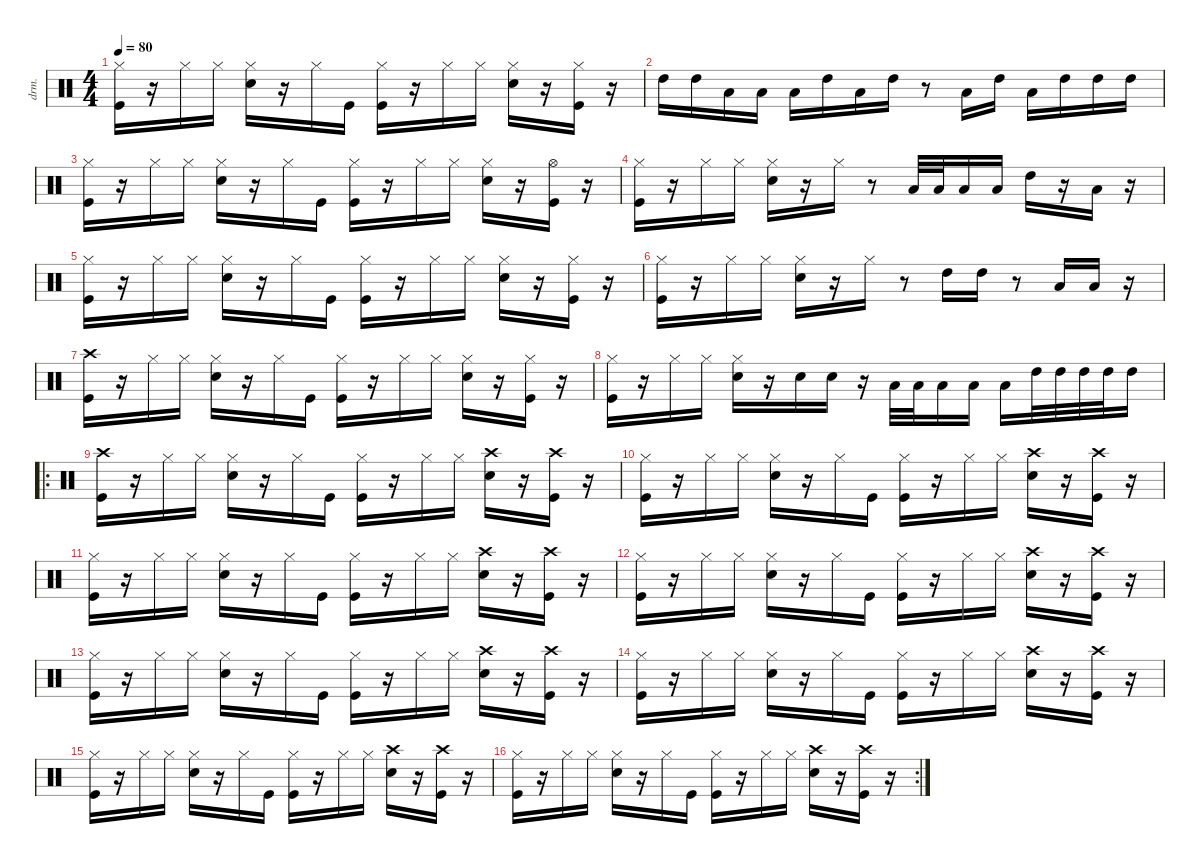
\defaultSystemsLayout 4
\hideDynamics
\bracketExtendMode nobrackets
\track ("Percussions" "drm.") {instrument percussion}
\staff {score}
\articulation defaults
\ts (4 4)
\tempo 80
\clef neutral
\ks c
("Kick (hit)" "Hi-Hat (closed)").16{dy f beam Down} r.16{beam Down} "Hi-Hat (closed)".16{beam Down} "Hi-Hat (closed)".16{beam Down} ("Snare (hit) 2" "Hi-Hat (closed)").16{beam Down} r.16{beam Down} "Hi-Hat (closed)".16{beam Down} "Kick (hit)".16{beam Down} ("Kick (hit)" "Hi-Hat (closed)").16{beam Down} r.16{beam Down} "Hi-Hat (closed)".16{beam Down} "Hi-Hat (closed)".16{beam Down} ("Snare (hit) 2" "Hi-Hat (closed)").16{beam Down} r.16{beam Down} ("Kick (hit)" "Hi-Hat (closed)").16{beam Down} r.16{beam Down} |
"High Tom (hit)".16{beam Down} "High Tom (hit)".16{beam Down} "Low Tom (hit)".16{beam Down} "Low Floor Tom (hit)".16{beam Down} "Low Floor Tom (hit)".16{beam Down} "High Tom (hit)".16{beam Down} "Low Floor Tom (hit)".16{beam Down} "High Tom (hit)".16{beam Down} r.8{beam Down} "Low Floor Tom (hit)".16{beam Down} "High Tom (hit)".16{beam Down} "Low Floor Tom (hit)".16{beam Down} "High Tom (hit)".16{beam Down} "High Tom (hit)".16{beam Down} "High Tom (hit)".16{beam Down} |
("Kick (hit)" "Hi-Hat (closed)").16{beam Down} r.16{beam Down} "Hi-Hat (closed)".16{beam Down} "Hi-Hat (closed)".16{beam Down} ("Snare (hit) 2" "Hi-Hat (closed)").16{beam Down} r.16{beam Down} "Hi-Hat (closed)".16{beam Down} "Kick (hit)".16{beam Down} ("Kick (hit)" "Hi-Hat (closed)").16{beam Down} r.16{beam Down} "Hi-Hat (closed)".16{beam Down} "Hi-Hat (closed)".16{beam Down} ("Snare (hit) 2" "Hi-Hat (closed)").16{beam Down} r.16{beam Down} ("Kick (hit)" "Hi-Hat (open)").16{beam Down} r.16{beam Down} |
("Kick (hit)" "Hi-Hat (closed)").16{beam Down} r.16{beam Down} "Hi-Hat (closed)".16{beam Down} "Hi-Hat (closed)".16{beam Down} ("Snare (hit) 2" "Hi-Hat (closed)").16{beam Down} r.16{beam Down} "Hi-Hat (closed)".16{beam Down} r.8{beam Down} "Low Floor Tom (hit)".32{beam Up} "Low Floor Tom (hit)".32{beam Up} "Low Floor Tom (hit)".16{beam Up} "Low Floor Tom (hit)".16{beam Up} "High Tom (hit)".16{beam Down} r.16{beam Down} "Low Floor Tom (hit)".16{beam Down} r.16{beam Down} |
("Kick (hit)" "Hi-Hat (closed)").16{beam Down} r.16{beam Down} "Hi-Hat (closed)".16{beam Down} "Hi-Hat (closed)".16{beam Down} ("Snare (hit) 2" "Hi-Hat (closed)").16{beam Down} r.16{beam Down} "Hi-Hat (closed)".16{beam Down} "Kick (hit)".16{beam Down} ("Kick (hit)" "Hi-Hat (closed)").16{beam Down} r.16{beam Down} "Hi-Hat (closed)".16{beam Down} "Hi-Hat (closed)".16{beam Down} ("Snare (hit) 2" "Hi-Hat (closed)").16{beam Down} r.16{beam Down} ("Kick (hit)" "Hi-Hat (closed)").16{beam Down} r.16{beam Down} |
("Kick (hit)" "Hi-Hat (closed)").16{beam Down} r.16{beam Down} "Hi-Hat (closed)".16{beam Down} "Hi-Hat (closed)".16{beam Down} ("Snare (hit) 2" "Hi-Hat (closed)").16{beam Down} r.16{beam Down} "Hi-Hat (closed)".16{beam Down} r.8{beam Down} "High Tom (hit)".16{beam Down} "High Tom (hit)".16{beam Down} r.8{beam Down} "Low Floor Tom (hit)".16{beam Up} "Low Floor Tom (hit)".16{beam Up} r.16{beam Down} |
("Kick (hit)" "Crash high (hit)").16{beam Down} r.16{beam Down} "Hi-Hat (closed)".16{beam Down} "Hi-Hat (closed)".16{beam Down} ("Snare (hit) 2" "Hi-Hat (closed)").16{beam Down} r.16{beam Down} "Hi-Hat (closed)".16{beam Down} "Kick (hit)".16{beam Down} ("Kick (hit)" "Hi-Hat (closed)").16{beam Down} r.16{beam Down} "Hi-Hat (closed)".16{beam Down} "Hi-Hat (closed)".16{beam Down} ("Snare (hit) 2" "Hi-Hat (closed)").16{beam Down} r.16{beam Down} ("Kick (hit)" "Hi-Hat (closed)").16{beam Down} r.16{beam Down} |
("Kick (hit)" "Hi-Hat (closed)").16{beam Down} r.16{beam Down} "Hi-Hat (closed)".16{beam Down} "Hi-Hat (closed)".16{beam Down} ("Snare (hit) 2" "Hi-Hat (closed)").16{beam Down} r.16{beam Down} "Snare (hit) 2".16{beam Down} "Snare (hit) 2".16{beam Down} r.16{beam Down} "Low Floor Tom (hit)".32{beam Up} "Low Floor Tom (hit)".32{beam Up} "Low Floor Tom (hit)".16{beam Up} "Low Floor Tom (hit)".16{beam Up} "Low Floor Tom (hit)".16{beam Down} "High Tom (hit)".32{beam Down} "High Tom (hit)".32{beam Down} "High Tom (hit)".32{beam Down} "High Tom (hit)".32{beam Down} "High Tom (hit)".16{beam Down} |
\ro
("Kick (hit)" "Crash high (hit)").16{beam Down} r.16{beam Down} "Hi-Hat (closed)".16{beam Down} "Hi-Hat (closed)".16{beam Down} ("Snare (hit) 2" "Hi-Hat (closed)").16{beam Down} r.16{beam Down} "Hi-Hat (closed)".16{beam Down} "Kick (hit)".16{beam Down} ("Kick (hit)" "Hi-Hat (closed)").16{beam Down} r.16{beam Down} "Hi-Hat (closed)".16{beam Down} "Hi-Hat (closed)".16{beam Down} ("Crash high (hit)" "Snare (hit) 2").16{beam Down} r.16{beam Down} ("Kick (hit)" "Crash high (hit)").16{beam Down} r.16{beam Down} |
("Kick (hit)" "Hi-Hat (closed)").16{beam Down} r.16{beam Down} "Hi-Hat (closed)".16{beam Down} "Hi-Hat (closed)".16{beam Down} ("Snare (hit) 2" "Hi-Hat (closed)").16{beam Down} r.16{beam Down} "Hi-Hat (closed)".16{beam Down} "Kick (hit)".16{beam Down} ("Kick (hit)" "Hi-Hat (closed)").16{beam Down} r.16{beam Down} "Hi-Hat (closed)".16{beam Down} "Hi-Hat (closed)".16{beam Down} ("Crash high (hit)" "Snare (hit) 2").16{beam Down} r.16{beam Down} ("Kick (hit)" "Crash high (hit)").16{beam Down} r.16{beam Down} |
("Kick (hit)" "Hi-Hat (closed)").16{beam Down} r.16{beam Down} "Hi-Hat (closed)".16{beam Down} "Hi-Hat (closed)".16{beam Down} ("Snare (hit) 2" "Hi-Hat (closed)").16{beam Down} r.16{beam Down} "Hi-Hat (closed)".16{beam Down} "Kick (hit)".16{beam Down} ("Kick (hit)" "Hi-Hat (closed)").16{beam Down} r.16{beam Down} "Hi-Hat (closed)".16{beam Down} "Hi-Hat (closed)".16{beam Down} ("Crash high (hit)" "Snare (hit) 2").16{beam Down} r.16{beam Down} ("Kick (hit)" "Crash high (hit)").16{beam Down} r.16{beam Down} |
("Kick (hit)" "Hi-Hat (closed)").16{beam Down} r.16{beam Down} "Hi-Hat (closed)".16{beam Down} "Hi-Hat (closed)".16{beam Down} ("Snare (hit) 2" "Hi-Hat (closed)").16{beam Down} r.16{beam Down} "Hi-Hat (closed)".16{beam Down} "Kick (hit)".16{beam Down} ("Kick (hit)" "Hi-Hat (closed)").16{beam Down} r.16{beam Down} "Hi-Hat (closed)".16{beam Down} "Hi-Hat (closed)".16{beam Down} ("Crash high (hit)" "Snare (hit) 2").16{beam Down} r.16{beam Down} ("Kick (hit)" "Crash high (hit)").16{beam Down} r.16{beam Down} |
("Kick (hit)" "Hi-Hat (closed)").16{beam Down} r.16{beam Down} "Hi-Hat (closed)".16{beam Down} "Hi-Hat (closed)".16{beam Down} ("Snare (hit) 2" "Hi-Hat (closed)").16{beam Down} r.16{beam Down} "Hi-Hat (closed)".16{beam Down} "Kick (hit)".16{beam Down} ("Kick (hit)" "Hi-Hat (closed)").16{beam Down} r.16{beam Down} "Hi-Hat (closed)".16{beam Down} "Hi-Hat (closed)".16{beam Down} ("Crash high (hit)" "Snare (hit) 2").16{beam Down} r.16{beam Down} ("Kick (hit)" "Crash high (hit)").16{beam Down} r.16{beam Down} |
("Kick (hit)" "Hi-Hat (closed)").16{beam Down} r.16{beam Down} "Hi-Hat (closed)".16{beam Down} "Hi-Hat (closed)".16{beam Down} ("Snare (hit) 2" "Hi-Hat (closed)").16{beam Down} r.16{beam Down} "Hi-Hat (closed)".16{beam Down} "Kick (hit)".16{beam Down} ("Kick (hit)" "Hi-Hat (closed)").16{beam Down} r.16{beam Down} "Hi-Hat (closed)".16{beam Down} "Hi-Hat (closed)".16{beam Down} ("Crash high (hit)" "Snare (hit) 2").16{beam Down} r.16{beam Down} ("Kick (hit)" "Crash high (hit)").16{beam Down} r.16{beam Down} |
("Kick (hit)" "Hi-Hat (closed)").16{beam Down} r.16{beam Down} "Hi-Hat (closed)".16{beam Down} "Hi-Hat (closed)".16{beam Down} ("Snare (hit) 2" "Hi-Hat (closed)").16{beam Down} r.16{beam Down} "Hi-Hat (closed)".16{beam Down} "Kick (hit)".16{beam Down} ("Kick (hit)" "Hi-Hat (closed)").16{beam Down} r.16{beam Down} "Hi-Hat (closed)".16{beam Down} "Hi-Hat (closed)".16{beam Down} ("Crash high (hit)" "Snare (hit) 2").16{beam Down} r.16{beam Down} ("Kick (hit)" "Crash high (hit)").16{beam Down} r.16{beam Down} |
\rc 2
("Kick (hit)" "Hi-Hat (closed)").16{beam Down} r.16{beam Down} "Hi-Hat (closed)".16{beam Down} "Hi-Hat (closed)".16{beam Down} ("Snare (hit) 2" "Hi-Hat (closed)").16{beam Down} r.16{beam Down} "Hi-Hat (closed)".16{beam Down} "Kick (hit)".16{beam Down} ("Kick (hit)" "Hi-Hat (closed)").16{beam Down} r.16{beam Down} "Hi-Hat (closed)".16{beam Down} "Hi-Hat (closed)".16{beam Down} ("Crash high (hit)" "Snare (hit) 2").16{beam Down} r.16{beam Down} ("Kick (hit)" "Crash high (hit)").16{beam Down} r.16{beam Down}
